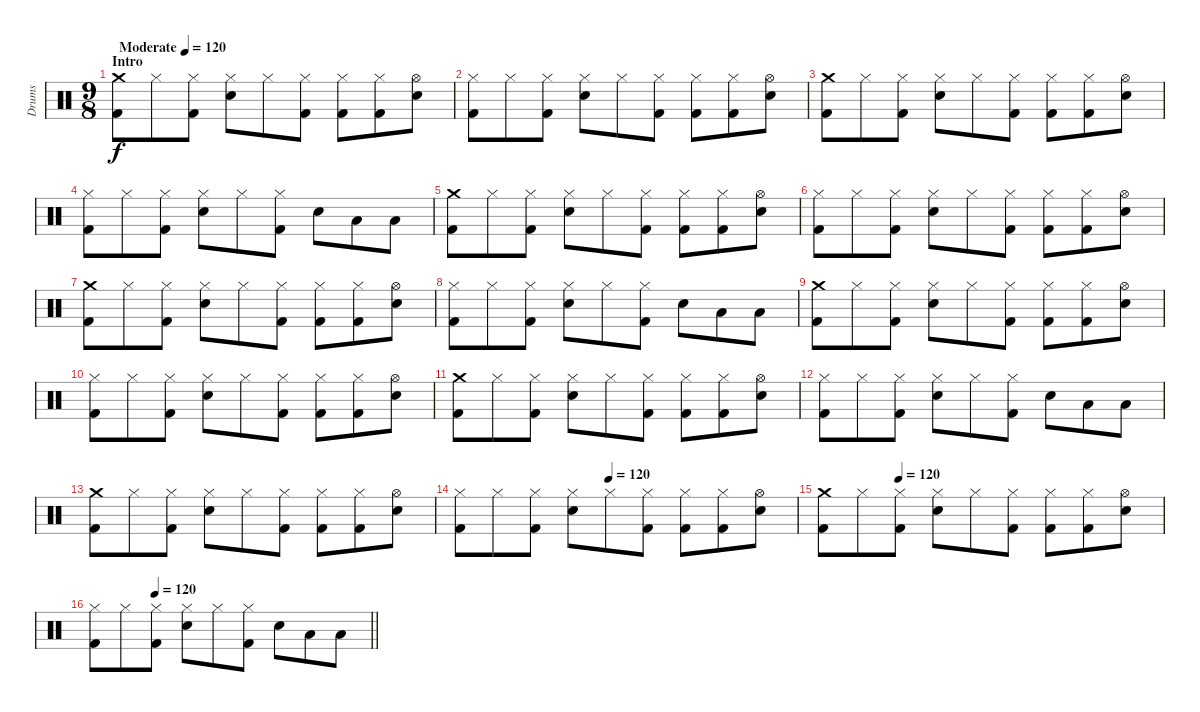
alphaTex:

\track ("Drums" "Drums") {instrument percussion}
\staff {score}
\articulation defaults
\ts (9 8)
\section ("" "Intro")
\tempo (120 "Moderate")
\clef neutral
\ks c
("Kick (hit) 2" "Crash medium (hit)").8{dy f} "Hi-Hat (closed)".8 ("Kick (hit) 2" "Hi-Hat (closed)").8 ("Electric Snare (hit)" "Hi-Hat (closed)").8 "Hi-Hat (closed)".8 ("Kick (hit) 2" "Hi-Hat (closed)").8 ("Kick (hit) 2" "Hi-Hat (closed)").8 ("Kick (hit) 2" "Hi-Hat (closed)").8 ("Electric Snare (hit)" "Hi-Hat (open)").8 |
("Kick (hit) 2" "Hi-Hat (closed)").8 "Hi-Hat (closed)".8 ("Kick (hit) 2" "Hi-Hat (closed)").8 ("Electric Snare (hit)" "Hi-Hat (closed)").8 "Hi-Hat (closed)".8 ("Kick (hit) 2" "Hi-Hat (closed)").8 ("Kick (hit) 2" "Hi-Hat (closed)").8 ("Kick (hit) 2" "Hi-Hat (closed)").8 ("Electric Snare (hit)" "Hi-Hat (open)").8 |
("Kick (hit) 2" "Crash medium (hit)").8 "Hi-Hat (closed)".8 ("Kick (hit) 2" "Hi-Hat (closed)").8 ("Electric Snare (hit)" "Hi-Hat (closed)").8 "Hi-Hat (closed)".8 ("Kick (hit) 2" "Hi-Hat (closed)").8 ("Kick (hit) 2" "Hi-Hat (closed)").8 ("Kick (hit) 2" "Hi-Hat (closed)").8 ("Electric Snare (hit)" "Hi-Hat (open)").8 |
("Kick (hit) 2" "Hi-Hat (closed)").8 "Hi-Hat (closed)".8 ("Kick (hit) 2" "Hi-Hat (closed)").8 ("Electric Snare (hit)" "Hi-Hat (closed)").8 "Hi-Hat (closed)".8 ("Kick (hit) 2" "Hi-Hat (closed)").8 "Electric Snare (hit)".8 "Low Tom (hit)".8 "Low Floor Tom (hit)".8 |
("Kick (hit) 2" "Crash medium (hit)").8 "Hi-Hat (closed)".8 ("Kick (hit) 2" "Hi-Hat (closed)").8 ("Electric Snare (hit)" "Hi-Hat (closed)").8 "Hi-Hat (closed)".8 ("Kick (hit) 2" "Hi-Hat (closed)").8 ("Kick (hit) 2" "Hi-Hat (closed)").8 ("Kick (hit) 2" "Hi-Hat (closed)").8 ("Electric Snare (hit)" "Hi-Hat (open)").8 |
("Kick (hit) 2" "Hi-Hat (closed)").8 "Hi-Hat (closed)".8 ("Kick (hit) 2" "Hi-Hat (closed)").8 ("Electric Snare (hit)" "Hi-Hat (closed)").8 "Hi-Hat (closed)".8 ("Kick (hit) 2" "Hi-Hat (closed)").8 ("Kick (hit) 2" "Hi-Hat (closed)").8 ("Kick (hit) 2" "Hi-Hat (closed)").8 ("Electric Snare (hit)" "Hi-Hat (open)").8 |
("Kick (hit) 2" "Crash medium (hit)").8 "Hi-Hat (closed)".8 ("Kick (hit) 2" "Hi-Hat (closed)").8 ("Electric Snare (hit)" "Hi-Hat (closed)").8 "Hi-Hat (closed)".8 ("Kick (hit) 2" "Hi-Hat (closed)").8 ("Kick (hit) 2" "Hi-Hat (closed)").8 ("Kick (hit) 2" "Hi-Hat (closed)").8 ("Electric Snare (hit)" "Hi-Hat (open)").8 |
("Kick (hit) 2" "Hi-Hat (closed)").8 "Hi-Hat (closed)".8 ("Kick (hit) 2" "Hi-Hat (closed)").8 ("Electric Snare (hit)" "Hi-Hat (closed)").8 "Hi-Hat (closed)".8 ("Kick (hit) 2" "Hi-Hat (closed)").8 "Electric Snare (hit)".8 "Low Tom (hit)".8 "Low Floor Tom (hit)".8 |
("Kick (hit) 2" "Crash medium (hit)").8 "Hi-Hat (closed)".8 ("Kick (hit) 2" "Hi-Hat (closed)").8 ("Electric Snare (hit)" "Hi-Hat (closed)").8 "Hi-Hat (closed)".8 ("Kick (hit) 2" "Hi-Hat (closed)").8 ("Kick (hit) 2" "Hi-Hat (closed)").8 ("Kick (hit) 2" "Hi-Hat (closed)").8 ("Electric Snare (hit)" "Hi-Hat (open)").8 |
("Kick (hit) 2" "Hi-Hat (closed)").8 "Hi-Hat (closed)".8 ("Kick (hit) 2" "Hi-Hat (closed)").8 ("Electric Snare (hit)" "Hi-Hat (closed)").8 "Hi-Hat (closed)".8 ("Kick (hit) 2" "Hi-Hat (closed)").8 ("Kick (hit) 2" "Hi-Hat (closed)").8 ("Kick (hit) 2" "Hi-Hat (closed)").8 ("Electric Snare (hit)" "Hi-Hat (open)").8 |
("Kick (hit) 2" "Crash medium (hit)").8 "Hi-Hat (closed)".8 ("Kick (hit) 2" "Hi-Hat (closed)").8 ("Electric Snare (hit)" "Hi-Hat (closed)").8 "Hi-Hat (closed)".8 ("Kick (hit) 2" "Hi-Hat (closed)").8 ("Kick (hit) 2" "Hi-Hat (closed)").8 ("Kick (hit) 2" "Hi-Hat (closed)").8 ("Electric Snare (hit)" "Hi-Hat (open)").8 |
("Kick (hit) 2" "Hi-Hat (closed)").8 "Hi-Hat (closed)".8 ("Kick (hit) 2" "Hi-Hat (closed)").8 ("Electric Snare (hit)" "Hi-Hat (closed)").8 "Hi-Hat (closed)".8 ("Kick (hit) 2" "Hi-Hat (closed)").8 "Electric Snare (hit)".8 "Low Tom (hit)".8 "Low Floor Tom (hit)".8 |
("Kick (hit) 2" "Crash medium (hit)").8 "Hi-Hat (closed)".8 ("Kick (hit) 2" "Hi-Hat (closed)").8 ("Electric Snare (hit)" "Hi-Hat (closed)").8 "Hi-Hat (closed)".8 ("Kick (hit) 2" "Hi-Hat (closed)").8 ("Kick (hit) 2" "Hi-Hat (closed)").8 ("Kick (hit) 2" "Hi-Hat (closed)").8 ("Electric Snare (hit)" "Hi-Hat (open)").8 |
\tempo (120 0.4444444444444444)
("Kick (hit) 2" "Hi-Hat (closed)").8 "Hi-Hat (closed)".8 ("Kick (hit) 2" "Hi-Hat (closed)").8 ("Electric Snare (hit)" "Hi-Hat (closed)").8 "Hi-Hat (closed)".8 ("Kick (hit) 2" "Hi-Hat (closed)").8 ("Kick (hit) 2" "Hi-Hat (closed)").8 ("Kick (hit) 2" "Hi-Hat (closed)").8 ("Electric Snare (hit)" "Hi-Hat (open)").8 |
\tempo (120 0.2222222222222222)
("Kick (hit) 2" "Crash medium (hit)").8 "Hi-Hat (closed)".8 ("Kick (hit) 2" "Hi-Hat (closed)").8 ("Electric Snare (hit)" "Hi-Hat (closed)").8 "Hi-Hat (closed)".8 ("Kick (hit) 2" "Hi-Hat (closed)").8 ("Kick (hit) 2" "Hi-Hat (closed)").8 ("Kick (hit) 2" "Hi-Hat (closed)").8 ("Electric Snare (hit)" "Hi-Hat (open)").8 |
\tempo (120 0.2222222222222222)
\barLineRight lightlight
("Kick (hit) 2" "Hi-Hat (closed)").8 "Hi-Hat (closed)".8 ("Kick (hit) 2" "Hi-Hat (closed)").8 ("Electric Snare (hit)" "Hi-Hat (closed)").8 "Hi-Hat (closed)".8 ("Kick (hit) 2" "Hi-Hat (closed)").8 "Electric Snare (hit)".8 "Low Tom (hit)".8 "Low Floor Tom (hit)".8
